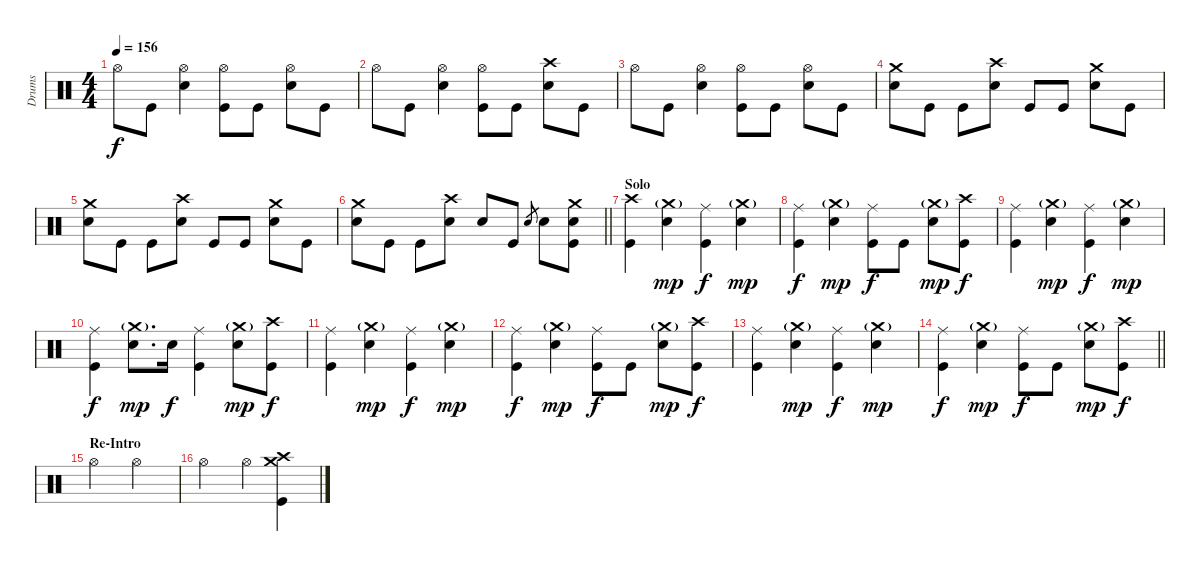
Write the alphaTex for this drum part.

\track ("Drums" "Drums") {instrument percussion}
\staff {score}
\articulation defaults
\ts (4 4)
\tempo 156
\clef neutral
\ks c "Hi-Hat (open)".8{dy f} "Kick (hit)".8
("Hi-Hat (open)" "Snare (hit) 2").4 ("Hi-Hat (open)" "Kick (hit)").8 "Kick (hit)".8 ("Hi-Hat (open)" "Snare (hit) 2").8 "Kick (hit)".8 |
"Hi-Hat (open)".8 "Kick (hit)".8 ("Hi-Hat (open)" "Snare (hit) 2").4 ("Hi-Hat (open)" "Kick (hit)").8 "Kick (hit)".8 ("Crash high (hit)" "Snare (hit) 2").8 "Kick (hit)".8 |
"Hi-Hat (open)".8 "Kick (hit)".8 ("Hi-Hat (open)" "Snare (hit) 2").4 ("Hi-Hat (open)" "Kick (hit)").8 "Kick (hit)".8 ("Hi-Hat (open)" "Snare (hit) 2").8 "Kick (hit)".8 |
("Crash medium (hit)" "Snare (hit) 2").8 "Kick (hit)".8 "Kick (hit)".8 ("Crash high (hit)" "Snare (hit) 2").8 "Kick (hit)".8 "Kick (hit)".8 ("Crash medium (hit)" "Snare (hit) 2").8 "Kick (hit)".8 |
("Crash medium (hit)" "Snare (hit) 2").8 "Kick (hit)".8 "Kick (hit)".8 ("Crash high (hit)" "Snare (hit) 2").8 "Kick (hit)".8 "Kick (hit)".8 ("Crash medium (hit)" "Snare (hit) 2").8 "Kick (hit)".8 |
\barLineRight lightlight
("Crash medium (hit)" "Snare (hit) 2").8 "Kick (hit)".8 "Kick (hit)".8 ("Crash high (hit)" "Snare (hit) 2").8 "Snare (hit) 2".8 "Kick (hit)".8 "Snare (hit) 2".8{gr} "Snare (hit) 2".8 ("Crash medium (hit)" "Snare (hit) 2" "Kick (hit)").8 |
\section ("" "Solo")
("Crash high (hit)" "Kick (hit)").4 ("Crash medium (hit)"{g} "Snare (hit) 2").4{dy mp} ("Ride (middle)" "Kick (hit)").4{dy f} ("Crash medium (hit)"{g} "Snare (hit) 2").4{dy mp} |
("Ride (middle)" "Kick (hit)").4{dy f} ("Crash medium (hit)"{g} "Snare (hit) 2").4{dy mp} ("Ride (middle)" "Kick (hit)").8{dy f} "Kick (hit)".8 ("Crash medium (hit)"{g} "Snare (hit) 2").8{dy mp} ("Crash high (hit)" "Kick (hit)").8{dy f} |
("Ride (middle)" "Kick (hit)").4 ("Crash medium (hit)"{g} "Snare (hit) 2").4{dy mp} ("Ride (middle)" "Kick (hit)").4{dy f} ("Crash medium (hit)"{g} "Snare (hit) 2").4{dy mp} |
("Ride (middle)" "Kick (hit)").4{dy f} ("Crash medium (hit)"{g} "Snare (hit) 2").8{d dy mp} "Snare (hit) 2".16{dy f} ("Ride (middle)" "Kick (hit)").4 ("Crash medium (hit)"{g} "Snare (hit) 2").8{dy mp} ("Crash high (hit)" "Kick (hit)").8{dy f} |
("Ride (middle)" "Kick (hit)").4 ("Crash medium (hit)"{g} "Snare (hit) 2").4{dy mp} ("Ride (middle)" "Kick (hit)").4{dy f} ("Crash medium (hit)"{g} "Snare (hit) 2").4{dy mp} |
("Ride (middle)" "Kick (hit)").4{dy f} ("Crash medium (hit)"{g} "Snare (hit) 2").4{dy mp} ("Ride (middle)" "Kick (hit)").8{dy f} "Kick (hit)".8 ("Crash medium (hit)"{g} "Snare (hit) 2").8{dy mp} ("Crash high (hit)" "Kick (hit)").8{dy f} |
("Ride (middle)" "Kick (hit)").4 ("Crash medium (hit)"{g} "Snare (hit) 2").4{dy mp} ("Ride (middle)" "Kick (hit)").4{dy f} ("Crash medium (hit)"{g} "Snare (hit) 2").4{dy mp} |
\barLineRight lightlight
("Ride (middle)" "Kick (hit)").4{dy f} ("Crash medium (hit)"{g} "Snare (hit) 2").4{dy mp} ("Ride (middle)" "Kick (hit)").8{dy f} "Kick (hit)".8 ("Crash medium (hit)"{g} "Snare (hit) 2").8{dy mp} ("Crash high (hit)" "Kick (hit)").8{dy f} |
\section ("" "Re-Intro")
"Hi-Hat (open)".2 "Hi-Hat (open)".2 |
"Hi-Hat (open)".2 "Hi-Hat (open)".4 ("Crash high (hit)" "Crash medium (hit)" "Kick (hit)").4
